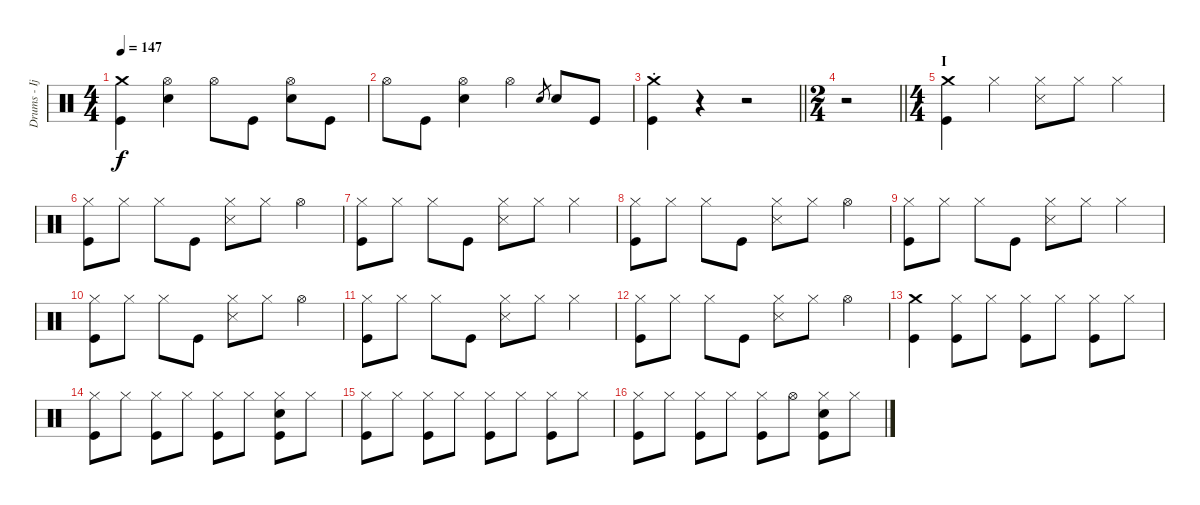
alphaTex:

\track ("Drums - Ijichi" "Drums - Ij") {instrument percussion}
\staff {score}
\articulation defaults
\ts (4 4)
\tempo 147
\clef neutral
\ks c
("Crash medium (hit)" "Kick (hit)").4{dy f} ("Hi-Hat (open)" "Electric Snare (hit)").4 "Hi-Hat (open)".8 "Kick (hit)".8 ("Hi-Hat (open)" "Electric Snare (hit)").8 "Kick (hit)".8 |
"Hi-Hat (open)".8 "Kick (hit)".8 ("Hi-Hat (open)" "Electric Snare (hit)").4 "Hi-Hat (open)".4 "Electric Snare (hit)".8{gr} "Electric Snare (hit)".8 "Kick (hit)".8 |
\barLineRight lightlight
("Crash medium (hit)"{st} "Kick (hit)").4 r.4 r.2 |
\ts (2 4)
\barLineRight lightlight
r.2 |
\ts (4 4)
\section ("" "I")
("Crash medium (hit)" "Kick (hit)").4 "Hi-Hat (closed)".4 ("Hi-Hat (closed)" "Snare (side stick) 3").8 "Hi-Hat (closed)".8 "Hi-Hat (closed)".4 |
("Hi-Hat (closed)" "Kick (hit)").8 "Hi-Hat (closed)".8 "Hi-Hat (closed)".8 "Kick (hit)".8 ("Hi-Hat (closed)" "Snare (side stick) 3").8 "Hi-Hat (closed)".8 "Hi-Hat (open)".4 |
("Hi-Hat (closed)" "Kick (hit)").8 "Hi-Hat (closed)".8 "Hi-Hat (closed)".8 "Kick (hit)".8 ("Hi-Hat (closed)" "Snare (side stick) 3").8 "Hi-Hat (closed)".8 "Hi-Hat (closed)".4 |
("Hi-Hat (closed)" "Kick (hit)").8 "Hi-Hat (closed)".8 "Hi-Hat (closed)".8 "Kick (hit)".8 ("Hi-Hat (closed)" "Snare (side stick) 3").8 "Hi-Hat (closed)".8 "Hi-Hat (open)".4 |
("Hi-Hat (closed)" "Kick (hit)").8 "Hi-Hat (closed)".8 "Hi-Hat (closed)".8 "Kick (hit)".8 ("Hi-Hat (closed)" "Snare (side stick) 3").8 "Hi-Hat (closed)".8 "Hi-Hat (closed)".4 |
("Hi-Hat (closed)" "Kick (hit)").8 "Hi-Hat (closed)".8 "Hi-Hat (closed)".8 "Kick (hit)".8 ("Hi-Hat (closed)" "Snare (side stick) 3").8 "Hi-Hat (closed)".8 "Hi-Hat (open)".4 |
("Hi-Hat (closed)" "Kick (hit)").8 "Hi-Hat (closed)".8 "Hi-Hat (closed)".8 "Kick (hit)".8 ("Hi-Hat (closed)" "Snare (side stick) 3").8 "Hi-Hat (closed)".8 "Hi-Hat (closed)".4 |
("Hi-Hat (closed)" "Kick (hit)").8 "Hi-Hat (closed)".8 "Hi-Hat (closed)".8 "Kick (hit)".8 ("Hi-Hat (closed)" "Snare (side stick) 3").8 "Hi-Hat (closed)".8 "Hi-Hat (open)".4 |
("Crash medium (hit)" "Kick (hit)").4 ("Hi-Hat (closed)" "Kick (hit)").8 "Hi-Hat (closed)".8 ("Hi-Hat (closed)" "Kick (hit)").8 "Hi-Hat (closed)".8 ("Hi-Hat (closed)" "Kick (hit)").8 "Hi-Hat (closed)".8 |
("Hi-Hat (closed)" "Kick (hit)").8 "Hi-Hat (closed)".8 ("Hi-Hat (closed)" "Kick (hit)").8 "Hi-Hat (closed)".8 ("Hi-Hat (closed)" "Kick (hit)").8 "Hi-Hat (closed)".8 ("Hi-Hat (closed)" "Electric Snare (hit)" "Kick (hit)").8 "Hi-Hat (closed)".8 |
("Hi-Hat (closed)" "Kick (hit)").8 "Hi-Hat (closed)".8 ("Hi-Hat (closed)" "Kick (hit)").8 "Hi-Hat (closed)".8 ("Hi-Hat (closed)" "Kick (hit)").8 "Hi-Hat (closed)".8 ("Hi-Hat (closed)" "Kick (hit)").8 "Hi-Hat (closed)".8 |
("Hi-Hat (closed)" "Kick (hit)").8 "Hi-Hat (closed)".8 ("Hi-Hat (closed)" "Kick (hit)").8 "Hi-Hat (closed)".8 ("Hi-Hat (closed)" "Kick (hit)").8 "Hi-Hat (open)".8 ("Hi-Hat (closed)" "Electric Snare (hit)" "Kick (hit)").8 "Hi-Hat (closed)".8
